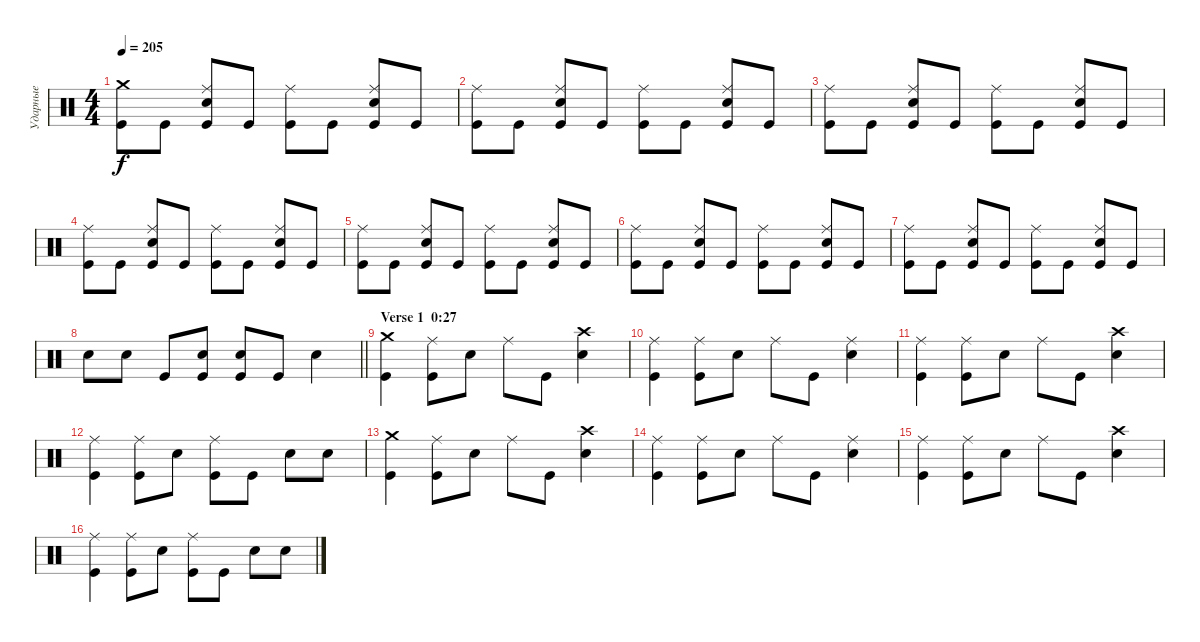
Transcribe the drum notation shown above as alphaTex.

\track ("Ударные" "Ударные") {instrument percussion}
\staff {score}
\articulation defaults
\ts (4 4)
\tempo 205
\clef neutral
\ks c
("Crash medium (hit)" "Kick (hit)").8{dy f} "Kick (hit)".8 ("Ride (middle)" "Snare (hit) 2" "Kick (hit)").8 "Kick (hit)".8 ("Ride (middle)" "Kick (hit)").8 "Kick (hit)".8 ("Ride (middle)" "Snare (hit) 2" "Kick (hit)").8 "Kick (hit)".8 |
("Ride (middle)" "Kick (hit)").8 "Kick (hit)".8 ("Ride (middle)" "Snare (hit) 2" "Kick (hit)").8 "Kick (hit)".8 ("Ride (middle)" "Kick (hit)").8 "Kick (hit)".8 ("Ride (middle)" "Snare (hit) 2" "Kick (hit)").8 "Kick (hit)".8 |
("Ride (middle)" "Kick (hit)").8 "Kick (hit)".8 ("Ride (middle)" "Snare (hit) 2" "Kick (hit)").8 "Kick (hit)".8 ("Ride (middle)" "Kick (hit)").8 "Kick (hit)".8 ("Ride (middle)" "Snare (hit) 2" "Kick (hit)").8 "Kick (hit)".8 |
("Ride (middle)" "Kick (hit)").8 "Kick (hit)".8 ("Ride (middle)" "Snare (hit) 2" "Kick (hit)").8 "Kick (hit)".8 ("Ride (middle)" "Kick (hit)").8 "Kick (hit)".8 ("Ride (middle)" "Snare (hit) 2" "Kick (hit)").8 "Kick (hit)".8 |
("Ride (middle)" "Kick (hit)").8 "Kick (hit)".8 ("Ride (middle)" "Snare (hit) 2" "Kick (hit)").8 "Kick (hit)".8 ("Ride (middle)" "Kick (hit)").8 "Kick (hit)".8 ("Ride (middle)" "Snare (hit) 2" "Kick (hit)").8 "Kick (hit)".8 |
("Ride (middle)" "Kick (hit)").8 "Kick (hit)".8 ("Ride (middle)" "Snare (hit) 2" "Kick (hit)").8 "Kick (hit)".8 ("Ride (middle)" "Kick (hit)").8 "Kick (hit)".8 ("Ride (middle)" "Snare (hit) 2" "Kick (hit)").8 "Kick (hit)".8 |
("Ride (middle)" "Kick (hit)").8 "Kick (hit)".8 ("Ride (middle)" "Snare (hit) 2" "Kick (hit)").8 "Kick (hit)".8 ("Ride (middle)" "Kick (hit)").8 "Kick (hit)".8 ("Ride (middle)" "Snare (hit) 2" "Kick (hit)").8 "Kick (hit)".8 |
\barLineRight lightlight "Snare (hit) 2".8 "Snare (hit) 2".8 "Kick (hit)".8
("Snare (hit) 2" "Kick (hit)").8 ("Snare (hit) 2" "Kick (hit)").8 "Kick (hit)".8 "Snare (hit) 2".4 |
\section ("" "Verse 1  0:27")
("Crash medium (hit)" "Kick (hit)").4 ("Ride (middle)" "Kick (hit)").8 "Snare (hit) 2".8 "Ride (middle)".8 "Kick (hit)".8 ("Crash high (hit)" "Snare (hit) 2").4 |
("Ride (middle)" "Kick (hit)").4 ("Ride (middle)" "Kick (hit)").8 "Snare (hit) 2".8 "Ride (middle)".8 "Kick (hit)".8 ("Ride (middle)" "Snare (hit) 2").4 |
("Ride (middle)" "Kick (hit)").4 ("Ride (middle)" "Kick (hit)").8 "Snare (hit) 2".8 "Ride (middle)".8 "Kick (hit)".8 ("Crash high (hit)" "Snare (hit) 2").4 |
("Ride (middle)" "Kick (hit)").4 ("Ride (middle)" "Kick (hit)").8 "Snare (hit) 2".8 ("Ride (middle)" "Kick (hit)").8 "Kick (hit)".8 "Snare (hit) 2".8 "Snare (hit) 2".8 |
("Crash medium (hit)" "Kick (hit)").4 ("Ride (middle)" "Kick (hit)").8 "Snare (hit) 2".8 "Ride (middle)".8 "Kick (hit)".8 ("Crash high (hit)" "Snare (hit) 2").4 |
("Ride (middle)" "Kick (hit)").4 ("Ride (middle)" "Kick (hit)").8 "Snare (hit) 2".8 "Ride (middle)".8 "Kick (hit)".8 ("Ride (middle)" "Snare (hit) 2").4 |
("Ride (middle)" "Kick (hit)").4 ("Ride (middle)" "Kick (hit)").8 "Snare (hit) 2".8 "Ride (middle)".8 "Kick (hit)".8 ("Crash high (hit)" "Snare (hit) 2").4 |
("Ride (middle)" "Kick (hit)").4 ("Ride (middle)" "Kick (hit)").8 "Snare (hit) 2".8 ("Ride (middle)" "Kick (hit)").8 "Kick (hit)".8 "Snare (hit) 2".8 "Snare (hit) 2".8
